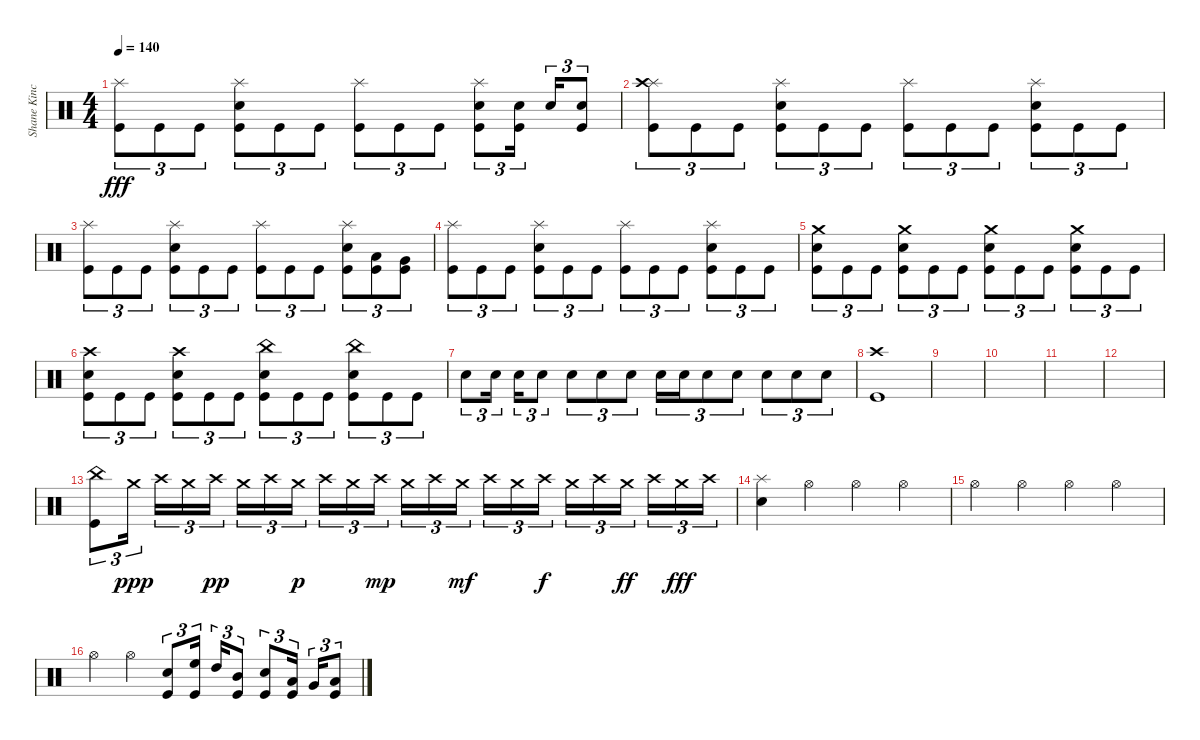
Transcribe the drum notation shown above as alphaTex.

\track ("Shane Kincaid" "Shane Kinc") {instrument percussion}
\staff {score}
\articulation defaults
\ts (4 4)
\tempo 140
\clef neutral
\ks c
("Splash (hit)" "Kick (hit)").8{tu (3 2) dy fff} "Kick (hit)".8{tu (3 2)} "Kick (hit)".8{tu (3 2)} ("Splash (hit)" "Electric Snare (hit)" "Kick (hit)").8{tu (3 2)} "Kick (hit)".8{tu (3 2)} "Kick (hit)".8{tu (3 2)} ("Splash (hit)" "Kick (hit)").8{tu (3 2)} "Kick (hit)".8{tu (3 2)} "Kick (hit)".8{tu (3 2)} ("Splash (hit)" "Electric Snare (hit)" "Kick (hit)").8{tu (3 2)} ("Electric Snare (hit)" "Kick (hit)").16{tu (3 2) beam splitsecondary} "Electric Snare (hit)".16{tu (3 2)} ("Electric Snare (hit)" "Kick (hit)").8{tu (3 2)} |
("Splash (hit)" "Crash high (hit)" "Kick (hit)").8{tu (3 2)} "Kick (hit)".8{tu (3 2)} "Kick (hit)".8{tu (3 2)} ("Splash (hit)" "Electric Snare (hit)" "Kick (hit)").8{tu (3 2)} "Kick (hit)".8{tu (3 2)} "Kick (hit)".8{tu (3 2)} ("Splash (hit)" "Kick (hit)").8{tu (3 2)} "Kick (hit)".8{tu (3 2)} "Kick (hit)".8{tu (3 2)} ("Splash (hit)" "Electric Snare (hit)" "Kick (hit)").8{tu (3 2)} "Kick (hit)".8{tu (3 2)} "Kick (hit)".8{tu (3 2)} |
("Splash (hit)" "Kick (hit)").8{tu (3 2)} "Kick (hit)".8{tu (3 2)} "Kick (hit)".8{tu (3 2)} ("Splash (hit)" "Electric Snare (hit)" "Kick (hit)").8{tu (3 2)} "Kick (hit)".8{tu (3 2)} "Kick (hit)".8{tu (3 2)} ("Splash (hit)" "Kick (hit)").8{tu (3 2)} "Kick (hit)".8{tu (3 2)} "Kick (hit)".8{tu (3 2)} ("Splash (hit)" "Electric Snare (hit)" "Kick (hit)").8{tu (3 2)} ("Low Tom (hit)" "Kick (hit)").8{tu (3 2)} ("Very Low Tom (hit)" "Kick (hit)").8{tu (3 2)} |
("Splash (hit)" "Kick (hit)").8{tu (3 2)} "Kick (hit)".8{tu (3 2)} "Kick (hit)".8{tu (3 2)} ("Splash (hit)" "Electric Snare (hit)" "Kick (hit)").8{tu (3 2)} "Kick (hit)".8{tu (3 2)} "Kick (hit)".8{tu (3 2)} ("Splash (hit)" "Kick (hit)").8{tu (3 2)} "Kick (hit)".8{tu (3 2)} "Kick (hit)".8{tu (3 2)} ("Splash (hit)" "Electric Snare (hit)" "Kick (hit)").8{tu (3 2)} "Kick (hit)".8{tu (3 2)} "Kick (hit)".8{tu (3 2)} |
("Crash medium (hit)" "Electric Snare (hit)" "Kick (hit)").8{tu (3 2)} "Kick (hit)".8{tu (3 2)} "Kick (hit)".8{tu (3 2)} ("Crash medium (hit)" "Electric Snare (hit)" "Kick (hit)").8{tu (3 2)} "Kick (hit)".8{tu (3 2)} "Kick (hit)".8{tu (3 2)} ("Crash medium (hit)" "Electric Snare (hit)" "Kick (hit)").8{tu (3 2)} "Kick (hit)".8{tu (3 2)} "Kick (hit)".8{tu (3 2)} ("Crash medium (hit)" "Electric Snare (hit)" "Kick (hit)").8{tu (3 2)} "Kick (hit)".8{tu (3 2)} "Kick (hit)".8{tu (3 2)} |
("Crash high (hit)" "Electric Snare (hit)" "Kick (hit)").8{tu (3 2)} "Kick (hit)".8{tu (3 2)} "Kick (hit)".8{tu (3 2)} ("Crash high (hit)" "Electric Snare (hit)" "Kick (hit)").8{tu (3 2)} "Kick (hit)".8{tu (3 2)} "Kick (hit)".8{tu (3 2)} ("China (hit)" "Electric Snare (hit)" "Kick (hit)").8{tu (3 2)} "Kick (hit)".8{tu (3 2)} "Kick (hit)".8{tu (3 2)} ("China (hit)" "Electric Snare (hit)" "Kick (hit)").8{tu (3 2)} "Kick (hit)".8{tu (3 2)} "Kick (hit)".8{tu (3 2)} |
"Electric Snare (hit)".8{tu (3 2)} "Electric Snare (hit)".16{tu (3 2) beam splitsecondary} "Electric Snare (hit)".16{tu (3 2)} "Electric Snare (hit)".8{tu (3 2)} "Electric Snare (hit)".8{tu (3 2)} "Electric Snare (hit)".8{tu (3 2)} "Electric Snare (hit)".8{tu (3 2)} "Electric Snare (hit)".16{tu (3 2)} "Electric Snare (hit)".16{tu (3 2)} "Electric Snare (hit)".8{tu (3 2)} "Electric Snare (hit)".8{tu (3 2)} "Electric Snare (hit)".8{tu (3 2)} "Electric Snare (hit)".8{tu (3 2)} "Electric Snare (hit)".8{tu (3 2)} |
("Crash high (hit)" "Kick (hit)").1 |
|
|
|
|
("China (hit)" "Kick (hit)").8{tu (3 2)} "Crash medium (hit)".16{tu (3 2) dy ppp beam splitsecondary} "Crash high (hit)".16{tu (3 2)} "Crash medium (hit)".16{tu (3 2)} "Crash high (hit)".16{tu (3 2) dy pp} "Crash medium (hit)".16{tu (3 2)} "Crash high (hit)".16{tu (3 2)} "Crash medium (hit)".16{tu (3 2) dy p beam splitsecondary} "Crash high (hit)".16{tu (3 2)} "Crash medium (hit)".16{tu (3 2)} "Crash high (hit)".16{tu (3 2) dy mp} "Crash medium (hit)".16{tu (3 2)} "Crash high (hit)".16{tu (3 2)} "Crash medium (hit)".16{tu (3 2) dy mf beam splitsecondary} "Crash high (hit)".16{tu (3 2)} "Crash medium (hit)".16{tu (3 2)} "Crash high (hit)".16{tu (3 2) dy f} "Crash medium (hit)".16{tu (3 2)} "Crash high (hit)".16{tu (3 2)} "Crash medium (hit)".16{tu (3 2) dy ff beam splitsecondary} "Crash high (hit)".16{tu (3 2)} "Crash medium (hit)".16{tu (3 2) dy fff} "Crash high (hit)".16{tu (3 2)} |
("Splash (hit)" "Electric Snare (hit)").4 "Hi-Hat (open)".4 "Hi-Hat (open)".4 "Hi-Hat (open)".4 |
"Hi-Hat (open)".4 "Hi-Hat (open)".4 "Hi-Hat (open)".4 "Hi-Hat (open)".4 |
"Hi-Hat (open)".4 "Hi-Hat (open)".4 ("Electric Snare (hit)" "Kick (hit)").8{tu (3 2)} ("High Floor Tom (hit)" "Kick (hit)").16{tu (3 2) beam splitsecondary} "High Tom (hit)".16{tu (3 2)} ("Mid Tom (hit)" "Kick (hit)").8{tu (3 2)} ("Electric Snare (hit)" "Kick (hit)").8{tu (3 2)} ("Low Tom (hit)" "Kick (hit)").16{tu (3 2) beam splitsecondary} "Very Low Tom (hit)".16{tu (3 2)} ("Low Floor Tom (hit)" "Kick (hit)").8{tu (3 2)}
